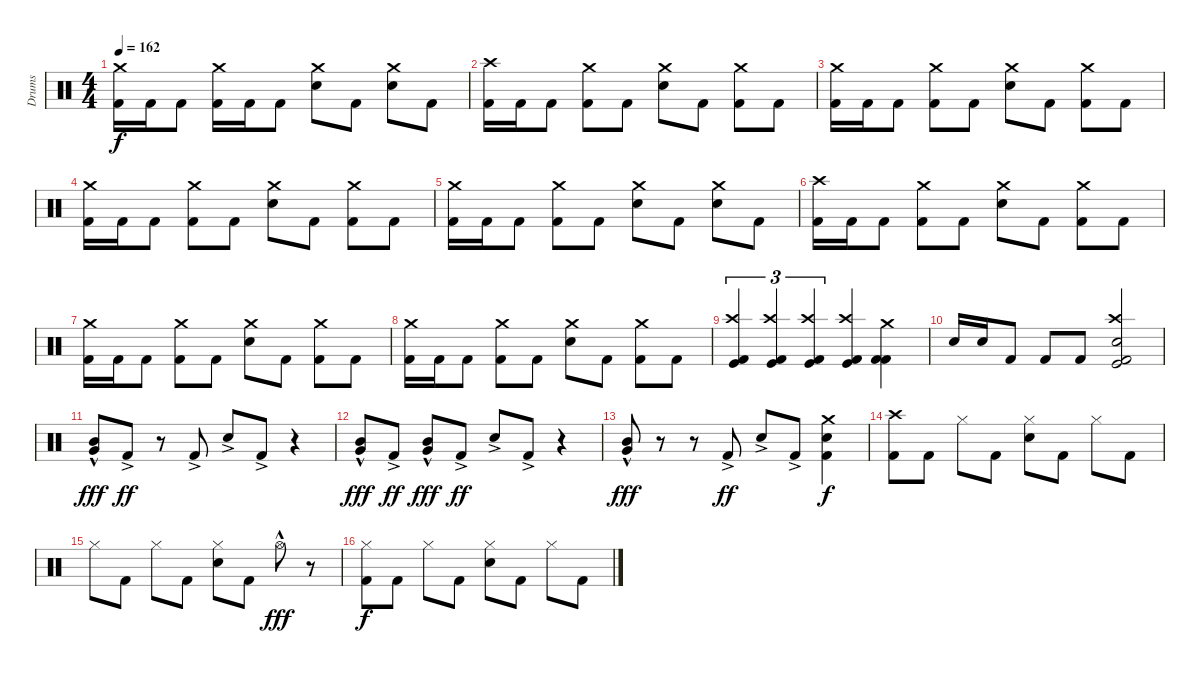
\track ("Drums" "Drums") {instrument percussion}
\staff {score}
\articulation defaults
\ts (4 4)
\tempo 162
\clef neutral
\ks c
("Crash medium (hit)" "Kick (hit) 2").16{dy f} "Kick (hit) 2".16 "Kick (hit) 2".8 ("Crash medium (hit)" "Kick (hit) 2").16 "Kick (hit) 2".16 "Kick (hit) 2".8 ("Crash medium (hit)" "Electric Snare (hit)").8 "Kick (hit) 2".8 ("Crash medium (hit)" "Electric Snare (hit)").8 "Kick (hit) 2".8 |
("Crash high (hit)" "Kick (hit) 2").16 "Kick (hit) 2".16 "Kick (hit) 2".8 ("Crash medium (hit)" "Kick (hit) 2").8 "Kick (hit) 2".8 ("Crash medium (hit)" "Electric Snare (hit)").8 "Kick (hit) 2".8 ("Crash medium (hit)" "Kick (hit) 2").8 "Kick (hit) 2".8 |
("Crash medium (hit)" "Kick (hit) 2").16 "Kick (hit) 2".16 "Kick (hit) 2".8 ("Crash medium (hit)" "Kick (hit) 2").8 "Kick (hit) 2".8 ("Crash medium (hit)" "Electric Snare (hit)").8 "Kick (hit) 2".8 ("Crash medium (hit)" "Kick (hit) 2").8 "Kick (hit) 2".8 |
("Crash medium (hit)" "Kick (hit) 2").16 "Kick (hit) 2".16 "Kick (hit) 2".8 ("Crash medium (hit)" "Kick (hit) 2").8 "Kick (hit) 2".8 ("Crash medium (hit)" "Electric Snare (hit)").8 "Kick (hit) 2".8 ("Crash medium (hit)" "Kick (hit) 2").8 "Kick (hit) 2".8 |
("Crash medium (hit)" "Kick (hit) 2").16 "Kick (hit) 2".16 "Kick (hit) 2".8 ("Crash medium (hit)" "Kick (hit) 2").8 "Kick (hit) 2".8 ("Crash medium (hit)" "Electric Snare (hit)").8 "Kick (hit) 2".8 ("Crash medium (hit)" "Electric Snare (hit)").8 "Kick (hit) 2".8 |
("Crash high (hit)" "Kick (hit) 2").16 "Kick (hit) 2".16 "Kick (hit) 2".8 ("Crash medium (hit)" "Kick (hit) 2").8 "Kick (hit) 2".8 ("Crash medium (hit)" "Electric Snare (hit)").8 "Kick (hit) 2".8 ("Crash medium (hit)" "Kick (hit) 2").8 "Kick (hit) 2".8 |
("Crash medium (hit)" "Kick (hit) 2").16 "Kick (hit) 2".16 "Kick (hit) 2".8 ("Crash medium (hit)" "Kick (hit) 2").8 "Kick (hit) 2".8 ("Crash medium (hit)" "Electric Snare (hit)").8 "Kick (hit) 2".8 ("Crash medium (hit)" "Kick (hit) 2").8 "Kick (hit) 2".8 |
("Crash medium (hit)" "Kick (hit) 2").16 "Kick (hit) 2".16 "Kick (hit) 2".8 ("Crash medium (hit)" "Kick (hit) 2").8 "Kick (hit) 2".8 ("Crash medium (hit)" "Electric Snare (hit)").8 "Kick (hit) 2".8 ("Crash medium (hit)" "Kick (hit) 2").8 "Kick (hit) 2".8 |
("Crash high (hit)" "Kick (hit)" "Kick (hit) 2").4{tu (3 2)} ("Crash high (hit)" "Kick (hit)" "Kick (hit) 2").4{tu (3 2)} ("Crash high (hit)" "Kick (hit)" "Kick (hit) 2").4{tu (3 2)} ("Crash high (hit)" "Kick (hit)" "Kick (hit) 2").4 ("Crash medium (hit)" "Kick (hit) 2" "Kick (hit) 2").4 |
"Electric Snare (hit)".16 "Electric Snare (hit)".16 "Kick (hit) 2".8 "Kick (hit) 2".8 "Kick (hit) 2".8 ("Crash high (hit)" "Electric Snare (hit)" "Kick (hit)" "Kick (hit) 2").2 |
("Mid Tom (hit)"{hac} "Very Low Tom (hit)"{hac}).8{dy fff} "Kick (hit) 2"{ac}.8{dy ff} r.8 "Kick (hit) 2"{ac}.8 "Electric Snare (hit)"{ac}.8 "Kick (hit) 2"{ac}.8 r.4 |
("Mid Tom (hit)"{hac} "Very Low Tom (hit)"{hac}).8{dy fff} "Kick (hit) 2"{ac}.8{dy ff} ("Mid Tom (hit)"{hac} "Very Low Tom (hit)"{hac}).8{dy fff} "Kick (hit) 2"{ac}.8{dy ff} "Electric Snare (hit)"{ac}.8 "Kick (hit) 2"{ac}.8 r.4 |
("Mid Tom (hit)"{hac} "Very Low Tom (hit)"{hac}).8{dy fff} r.8 r.8 "Kick (hit) 2"{ac}.8{dy ff} "Electric Snare (hit)"{ac}.8 "Kick (hit) 2"{ac}.8 ("Crash medium (hit)" "Electric Snare (hit)" "Kick (hit) 2").4{dy f} |
("Crash high (hit)" "Kick (hit) 2").8 "Kick (hit) 2".8 "Hi-Hat (closed)".8 "Kick (hit) 2".8 ("Hi-Hat (closed)" "Electric Snare (hit)").8 "Kick (hit) 2".8 "Hi-Hat (closed)".8 "Kick (hit) 2".8 |
"Hi-Hat (closed)".8 "Kick (hit) 2".8 "Hi-Hat (closed)".8 "Kick (hit) 2".8 ("Hi-Hat (closed)" "Electric Snare (hit)").8 "Kick (hit) 2".8 "Hi-Hat (open)"{hac}.8{dy fff} r.8 |
("Hi-Hat (closed)" "Kick (hit) 2").8{dy f} "Kick (hit) 2".8 "Hi-Hat (closed)".8 "Kick (hit) 2".8 ("Hi-Hat (closed)" "Electric Snare (hit)").8 "Kick (hit) 2".8 "Hi-Hat (closed)".8 "Kick (hit) 2".8
